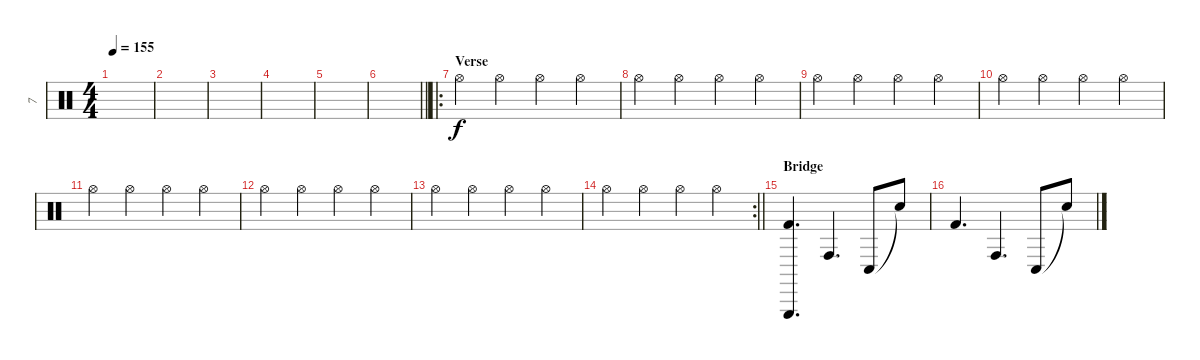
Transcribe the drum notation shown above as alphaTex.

\track ("7" "7") {instrument percussion}
\staff {score}
\articulation defaults
\ts (4 4)
\tempo 155
\clef neutral
\ks c
|
|
|
|
|
\barLineRight lightlight
|
\ro
\section ("" "Verse")
"Hi-Hat (open)".4 "Hi-Hat (open)".4 "Hi-Hat (open)".4 "Hi-Hat (open)".4 |
"Hi-Hat (open)".4 "Hi-Hat (open)".4 "Hi-Hat (open)".4 "Hi-Hat (open)".4 |
"Hi-Hat (open)".4 "Hi-Hat (open)".4 "Hi-Hat (open)".4 "Hi-Hat (open)".4 |
"Hi-Hat (open)".4 "Hi-Hat (open)".4 "Hi-Hat (open)".4 "Hi-Hat (open)".4 |
"Hi-Hat (open)".4 "Hi-Hat (open)".4 "Hi-Hat (open)".4 "Hi-Hat (open)".4 |
"Hi-Hat (open)".4 "Hi-Hat (open)".4 "Hi-Hat (open)".4 "Hi-Hat (open)".4 |
"Hi-Hat (open)".4 "Hi-Hat (open)".4 "Hi-Hat (open)".4 "Hi-Hat (open)".4 |
\rc 2
\barLineRight lightlight "Hi-Hat (open)".4 "Hi-Hat (open)".4 "Hi-Hat (open)".4 "Hi-Hat (open)".4
|
\section ("" "Bridge")
("Kick (hit) 2" "Triangle (hit)").4{d} "Conga high (hit)".4{d} "Conga low (hit)".8 "Snare (hit)"{t}.8 |
"Kick (hit) 2".4{d} "Conga high (hit)".4{d} "Conga low (hit)".8 "Snare (hit)"{t}.8
